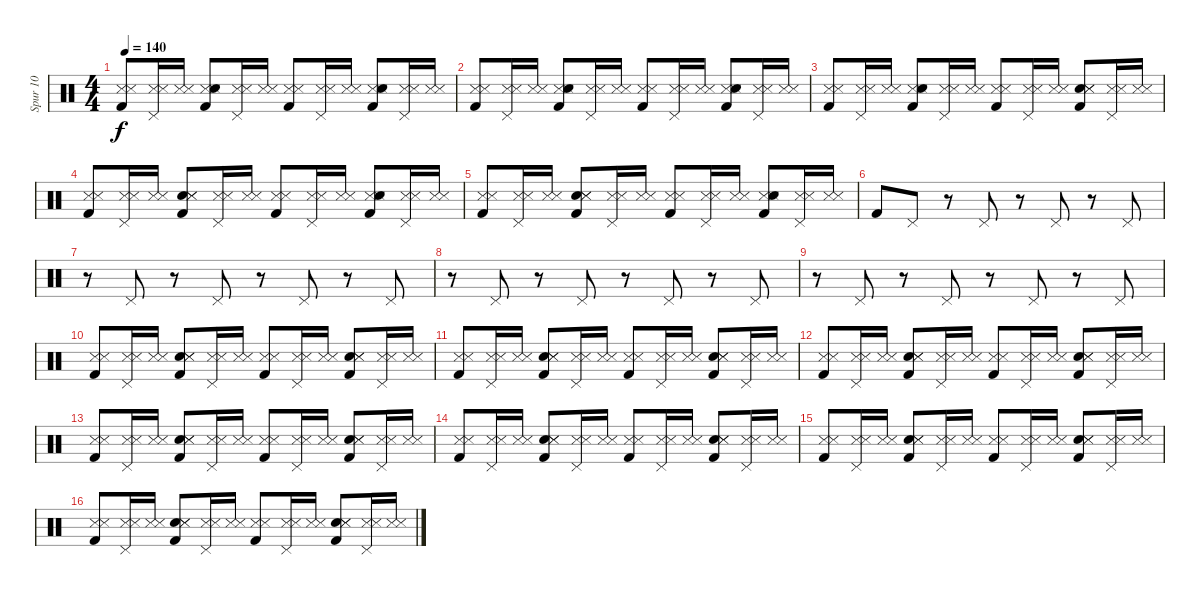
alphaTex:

\track ("Spur 10" "Spur 10") {instrument percussion}
\staff {score}
\articulation defaults
\ts (4 4)
\tempo 140
\clef neutral
\ks c
("Kick (hit) 2" "Snare (side stick) 3" "Metronome (hit)").8{dy f} ("Pedal Hi-Hat (hit)" "Snare (side stick) 3" "Metronome (hit)").16 ("Snare (side stick) 3" "Metronome (hit)").16 ("Kick (hit) 2" "Snare (side stick) 3" "Snare (hit) 2" "Metronome (hit)").8 ("Pedal Hi-Hat (hit)" "Snare (side stick) 3" "Metronome (hit)").16 ("Snare (side stick) 3" "Metronome (hit)").16 ("Snare (side stick) 3" "Kick (hit) 2" "Metronome (hit)").8 ("Snare (side stick) 3" "Pedal Hi-Hat (hit)" "Metronome (hit)").16 ("Snare (side stick) 3" "Metronome (hit)").16 ("Snare (side stick) 3" "Snare (hit) 2" "Kick (hit) 2" "Metronome (hit)").8 ("Pedal Hi-Hat (hit)" "Snare (side stick) 3" "Metronome (hit)").16 ("Snare (side stick) 3" "Metronome (hit)").16 |
("Snare (side stick) 3" "Kick (hit) 2" "Metronome (hit)").8 ("Pedal Hi-Hat (hit)" "Snare (side stick) 3" "Metronome (hit)").16 ("Snare (side stick) 3" "Metronome (hit)").16 ("Snare (side stick) 3" "Snare (hit) 2" "Kick (hit) 2" "Metronome (hit)").8 ("Pedal Hi-Hat (hit)" "Snare (side stick) 3" "Metronome (hit)").16 ("Snare (side stick) 3" "Metronome (hit)").16 ("Snare (side stick) 3" "Kick (hit) 2" "Metronome (hit)").8 ("Snare (side stick) 3" "Pedal Hi-Hat (hit)" "Metronome (hit)").16 ("Snare (side stick) 3" "Metronome (hit)").16 ("Snare (side stick) 3" "Kick (hit) 2" "Snare (hit) 2" "Metronome (hit)").8 ("Pedal Hi-Hat (hit)" "Snare (side stick) 3" "Metronome (hit)").16 ("Snare (side stick) 3" "Metronome (hit)").16 |
("Kick (hit) 2" "Snare (side stick) 3" "Metronome (hit)").8 ("Snare (side stick) 3" "Pedal Hi-Hat (hit)" "Metronome (hit)").16 ("Snare (side stick) 3" "Metronome (hit)").16 ("Kick (hit) 2" "Snare (side stick) 3" "Snare (hit) 2" "Metronome (hit)").8 ("Snare (side stick) 3" "Pedal Hi-Hat (hit)" "Metronome (hit)").16 ("Snare (side stick) 3" "Metronome (hit)").16 ("Snare (side stick) 3" "Kick (hit) 2" "Metronome (hit)").8 ("Snare (side stick) 3" "Pedal Hi-Hat (hit)" "Metronome (hit)").16 ("Snare (side stick) 3" "Metronome (hit)").16 ("Kick (hit) 2" "Snare (hit) 2" "Snare (side stick) 3" "Metronome (hit)").8 ("Snare (side stick) 3" "Pedal Hi-Hat (hit)" "Metronome (hit)").16 ("Snare (side stick) 3" "Metronome (hit)").16 |
("Kick (hit) 2" "Snare (side stick) 3" "Metronome (hit)").8 ("Pedal Hi-Hat (hit)" "Snare (side stick) 3" "Metronome (hit)").16 ("Snare (side stick) 3" "Metronome (hit)").16 ("Snare (hit) 2" "Kick (hit) 2" "Snare (side stick) 3" "Metronome (hit)").8 ("Snare (side stick) 3" "Pedal Hi-Hat (hit)" "Metronome (hit)").16 ("Snare (side stick) 3" "Metronome (hit)").16 ("Snare (side stick) 3" "Kick (hit) 2" "Metronome (hit)").8 ("Pedal Hi-Hat (hit)" "Snare (side stick) 3" "Metronome (hit)").16 ("Snare (side stick) 3" "Metronome (hit)").16 ("Snare (side stick) 3" "Snare (hit) 2" "Kick (hit) 2" "Metronome (hit)").8 ("Snare (side stick) 3" "Pedal Hi-Hat (hit)" "Metronome (hit)").16 ("Snare (side stick) 3" "Metronome (hit)").16 |
("Kick (hit) 2" "Snare (side stick) 3" "Metronome (hit)").8 ("Pedal Hi-Hat (hit)" "Snare (side stick) 3" "Metronome (hit)").16 ("Snare (side stick) 3" "Metronome (hit)").16 ("Snare (hit) 2" "Kick (hit) 2" "Snare (side stick) 3" "Metronome (hit)").8 ("Pedal Hi-Hat (hit)" "Snare (side stick) 3" "Metronome (hit)").16 ("Snare (side stick) 3" "Metronome (hit)").16 ("Kick (hit) 2" "Snare (side stick) 3" "Metronome (hit)").8 ("Snare (side stick) 3" "Pedal Hi-Hat (hit)" "Metronome (hit)").16 ("Snare (side stick) 3" "Metronome (hit)").16 ("Snare (side stick) 3" "Kick (hit) 2" "Snare (hit) 2" "Metronome (hit)").8 ("Pedal Hi-Hat (hit)" "Snare (side stick) 3" "Metronome (hit)").16 ("Snare (side stick) 3" "Metronome (hit)").16 |
"Kick (hit) 2".8 "Pedal Hi-Hat (hit)".8 r.8 "Pedal Hi-Hat (hit)".8 r.8 "Pedal Hi-Hat (hit)".8 r.8 "Pedal Hi-Hat (hit)".8 |
r.8 "Pedal Hi-Hat (hit)".8 r.8 "Pedal Hi-Hat (hit)".8 r.8 "Pedal Hi-Hat (hit)".8 r.8 "Pedal Hi-Hat (hit)".8 |
r.8 "Pedal Hi-Hat (hit)".8 r.8 "Pedal Hi-Hat (hit)".8 r.8 "Pedal Hi-Hat (hit)".8 r.8 "Pedal Hi-Hat (hit)".8 |
r.8 "Pedal Hi-Hat (hit)".8 r.8 "Pedal Hi-Hat (hit)".8 r.8 "Pedal Hi-Hat (hit)".8 r.8 "Pedal Hi-Hat (hit)".8 |
("Kick (hit) 2" "Snare (side stick) 3" "Metronome (hit)").8 ("Pedal Hi-Hat (hit)" "Snare (side stick) 3" "Metronome (hit)").16 ("Snare (side stick) 3" "Metronome (hit)").16 ("Snare (hit) 2" "Snare (side stick) 3" "Kick (hit) 2" "Metronome (hit)").8 ("Pedal Hi-Hat (hit)" "Snare (side stick) 3" "Metronome (hit)").16 ("Snare (side stick) 3" "Metronome (hit)").16 ("Kick (hit) 2" "Snare (side stick) 3" "Metronome (hit)").8 ("Pedal Hi-Hat (hit)" "Snare (side stick) 3" "Metronome (hit)").16 ("Snare (side stick) 3" "Metronome (hit)").16 ("Snare (hit) 2" "Snare (side stick) 3" "Kick (hit) 2" "Metronome (hit)").8 ("Pedal Hi-Hat (hit)" "Snare (side stick) 3" "Metronome (hit)").16 ("Snare (side stick) 3" "Metronome (hit)").16 |
("Kick (hit) 2" "Snare (side stick) 3" "Metronome (hit)").8 ("Pedal Hi-Hat (hit)" "Snare (side stick) 3" "Metronome (hit)").16 ("Snare (side stick) 3" "Metronome (hit)").16 ("Snare (hit) 2" "Snare (side stick) 3" "Kick (hit) 2" "Metronome (hit)").8 ("Pedal Hi-Hat (hit)" "Snare (side stick) 3" "Metronome (hit)").16 ("Snare (side stick) 3" "Metronome (hit)").16 ("Kick (hit) 2" "Snare (side stick) 3" "Metronome (hit)").8 ("Pedal Hi-Hat (hit)" "Snare (side stick) 3" "Metronome (hit)").16 ("Snare (side stick) 3" "Metronome (hit)").16 ("Snare (hit) 2" "Snare (side stick) 3" "Kick (hit) 2" "Metronome (hit)").8 ("Pedal Hi-Hat (hit)" "Snare (side stick) 3" "Metronome (hit)").16 ("Snare (side stick) 3" "Metronome (hit)").16 |
("Kick (hit) 2" "Snare (side stick) 3" "Metronome (hit)").8 ("Pedal Hi-Hat (hit)" "Snare (side stick) 3" "Metronome (hit)").16 ("Snare (side stick) 3" "Metronome (hit)").16 ("Snare (hit) 2" "Snare (side stick) 3" "Kick (hit) 2" "Metronome (hit)").8 ("Pedal Hi-Hat (hit)" "Snare (side stick) 3" "Metronome (hit)").16 ("Snare (side stick) 3" "Metronome (hit)").16 ("Kick (hit) 2" "Snare (side stick) 3" "Metronome (hit)").8 ("Pedal Hi-Hat (hit)" "Snare (side stick) 3" "Metronome (hit)").16 ("Snare (side stick) 3" "Metronome (hit)").16 ("Snare (hit) 2" "Snare (side stick) 3" "Kick (hit) 2" "Metronome (hit)").8 ("Pedal Hi-Hat (hit)" "Snare (side stick) 3" "Metronome (hit)").16 ("Snare (side stick) 3" "Metronome (hit)").16 |
("Kick (hit) 2" "Snare (side stick) 3" "Metronome (hit)").8 ("Pedal Hi-Hat (hit)" "Snare (side stick) 3" "Metronome (hit)").16 ("Snare (side stick) 3" "Metronome (hit)").16 ("Snare (hit) 2" "Kick (hit) 2" "Snare (side stick) 3" "Metronome (hit)").8 ("Snare (side stick) 3" "Pedal Hi-Hat (hit)" "Metronome (hit)").16 ("Snare (side stick) 3" "Metronome (hit)").16 ("Kick (hit) 2" "Snare (side stick) 3" "Metronome (hit)").8 ("Pedal Hi-Hat (hit)" "Snare (side stick) 3" "Metronome (hit)").16 ("Snare (side stick) 3" "Metronome (hit)").16 ("Snare (hit) 2" "Kick (hit) 2" "Snare (side stick) 3" "Metronome (hit)").8 ("Snare (side stick) 3" "Pedal Hi-Hat (hit)" "Metronome (hit)").16 ("Snare (side stick) 3" "Metronome (hit)").16 |
("Kick (hit) 2" "Snare (side stick) 3" "Metronome (hit)").8 ("Pedal Hi-Hat (hit)" "Snare (side stick) 3" "Metronome (hit)").16 ("Snare (side stick) 3" "Metronome (hit)").16 ("Snare (hit) 2" "Kick (hit) 2" "Snare (side stick) 3" "Metronome (hit)").8 ("Snare (side stick) 3" "Pedal Hi-Hat (hit)" "Metronome (hit)").16 ("Snare (side stick) 3" "Metronome (hit)").16 ("Kick (hit) 2" "Snare (side stick) 3" "Metronome (hit)").8 ("Pedal Hi-Hat (hit)" "Snare (side stick) 3" "Metronome (hit)").16 ("Snare (side stick) 3" "Metronome (hit)").16 ("Snare (hit) 2" "Kick (hit) 2" "Snare (side stick) 3" "Metronome (hit)").8 ("Snare (side stick) 3" "Pedal Hi-Hat (hit)" "Metronome (hit)").16 ("Snare (side stick) 3" "Metronome (hit)").16 |
("Kick (hit) 2" "Snare (side stick) 3" "Metronome (hit)").8 ("Pedal Hi-Hat (hit)" "Snare (side stick) 3" "Metronome (hit)").16 ("Snare (side stick) 3" "Metronome (hit)").16 ("Snare (hit) 2" "Kick (hit) 2" "Snare (side stick) 3" "Metronome (hit)").8 ("Snare (side stick) 3" "Pedal Hi-Hat (hit)" "Metronome (hit)").16 ("Snare (side stick) 3" "Metronome (hit)").16 ("Kick (hit) 2" "Snare (side stick) 3" "Metronome (hit)").8 ("Pedal Hi-Hat (hit)" "Snare (side stick) 3" "Metronome (hit)").16 ("Snare (side stick) 3" "Metronome (hit)").16 ("Snare (hit) 2" "Kick (hit) 2" "Snare (side stick) 3" "Metronome (hit)").8 ("Snare (side stick) 3" "Pedal Hi-Hat (hit)" "Metronome (hit)").16 ("Snare (side stick) 3" "Metronome (hit)").16 |
("Kick (hit) 2" "Snare (side stick) 3" "Metronome (hit)").8 ("Pedal Hi-Hat (hit)" "Snare (side stick) 3" "Metronome (hit)").16 ("Snare (side stick) 3" "Metronome (hit)").16 ("Snare (hit) 2" "Kick (hit) 2" "Snare (side stick) 3" "Metronome (hit)").8 ("Snare (side stick) 3" "Pedal Hi-Hat (hit)" "Metronome (hit)").16 ("Snare (side stick) 3" "Metronome (hit)").16 ("Kick (hit) 2" "Snare (side stick) 3" "Metronome (hit)").8 ("Pedal Hi-Hat (hit)" "Snare (side stick) 3" "Metronome (hit)").16 ("Snare (side stick) 3" "Metronome (hit)").16 ("Snare (hit) 2" "Kick (hit) 2" "Snare (side stick) 3" "Metronome (hit)").8 ("Snare (side stick) 3" "Pedal Hi-Hat (hit)" "Metronome (hit)").16 ("Snare (side stick) 3" "Metronome (hit)").16
